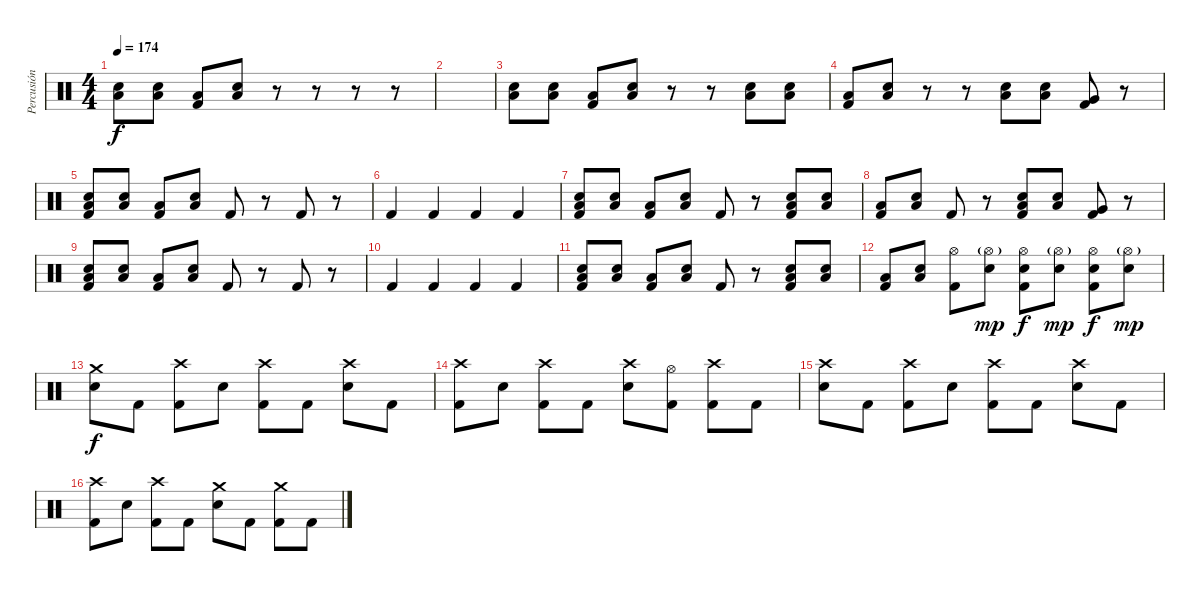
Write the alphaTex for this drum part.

\track ("Percusión" "Percusión") {instrument percussion}
\staff {score}
\articulation defaults
\ts (4 4)
\tempo 174
\clef neutral
\ks c
("Low Tom (hit)" "Electric Snare (hit)").8{dy f} ("Low Tom (hit)" "Electric Snare (hit)").8 ("Low Floor Tom (hit)" "Kick (hit) 2").8 ("Low Floor Tom (hit)" "Electric Snare (hit)").8 r.8 r.8 r.8 r.8 |
|
("Low Tom (hit)" "Electric Snare (hit)").8 ("Low Tom (hit)" "Electric Snare (hit)").8 ("Low Floor Tom (hit)" "Kick (hit) 2").8 ("Low Floor Tom (hit)" "Electric Snare (hit)").8 r.8 r.8 ("Low Tom (hit)" "Electric Snare (hit)").8 ("Low Tom (hit)" "Electric Snare (hit)").8 |
("Low Floor Tom (hit)" "Kick (hit) 2").8 ("Low Floor Tom (hit)" "Electric Snare (hit)").8 r.8 r.8 ("Low Tom (hit)" "Electric Snare (hit)").8 ("Low Tom (hit)" "Electric Snare (hit)").8 ("Very Low Tom (hit)" "Kick (hit) 2").8 r.8 |
("Low Tom (hit)" "Electric Snare (hit)" "Kick (hit) 2").8 ("Low Tom (hit)" "Electric Snare (hit)").8 ("Low Floor Tom (hit)" "Kick (hit) 2").8 ("Low Floor Tom (hit)" "Electric Snare (hit)").8 "Kick (hit) 2".8 r.8 "Kick (hit) 2".8 r.8 |
"Kick (hit) 2".4 "Kick (hit) 2".4 "Kick (hit) 2".4 "Kick (hit) 2".4 |
("Low Tom (hit)" "Electric Snare (hit)" "Kick (hit) 2").8 ("Low Tom (hit)" "Electric Snare (hit)").8 ("Low Floor Tom (hit)" "Kick (hit) 2").8 ("Low Floor Tom (hit)" "Electric Snare (hit)").8 "Kick (hit) 2".8 r.8 ("Low Tom (hit)" "Electric Snare (hit)" "Kick (hit) 2").8 ("Low Tom (hit)" "Electric Snare (hit)").8 |
("Low Floor Tom (hit)" "Kick (hit) 2").8 ("Low Floor Tom (hit)" "Electric Snare (hit)").8 "Kick (hit) 2".8 r.8 ("Low Tom (hit)" "Electric Snare (hit)" "Kick (hit) 2").8 ("Low Tom (hit)" "Electric Snare (hit)").8 ("Very Low Tom (hit)" "Kick (hit) 2").8 r.8 |
("Low Tom (hit)" "Electric Snare (hit)" "Kick (hit) 2").8 ("Low Tom (hit)" "Electric Snare (hit)").8 ("Low Floor Tom (hit)" "Kick (hit) 2").8 ("Low Floor Tom (hit)" "Electric Snare (hit)").8 "Kick (hit) 2".8 r.8 "Kick (hit) 2".8 r.8 |
"Kick (hit) 2".4 "Kick (hit) 2".4 "Kick (hit) 2".4 "Kick (hit) 2".4 |
("Low Tom (hit)" "Electric Snare (hit)" "Kick (hit) 2").8 ("Low Tom (hit)" "Electric Snare (hit)").8 ("Low Floor Tom (hit)" "Kick (hit) 2").8 ("Low Floor Tom (hit)" "Electric Snare (hit)").8 "Kick (hit) 2".8 r.8 ("Low Tom (hit)" "Electric Snare (hit)" "Kick (hit) 2").8 ("Low Tom (hit)" "Electric Snare (hit)").8 |
("Low Floor Tom (hit)" "Kick (hit) 2").8 ("Low Floor Tom (hit)" "Electric Snare (hit)").8 ("Hi-Hat (open)" "Kick (hit) 2").8 ("Hi-Hat (open)"{g} "Electric Snare (hit)").8{dy mp} ("Hi-Hat (open)" "Electric Snare (hit)" "Kick (hit) 2").8{dy f} ("Hi-Hat (open)"{g} "Electric Snare (hit)").8{dy mp} ("Hi-Hat (open)" "Electric Snare (hit)" "Kick (hit) 2").8{dy f} ("Hi-Hat (open)"{g} "Electric Snare (hit)").8{dy mp} |
("Crash medium (hit)" "Electric Snare (hit)").8{dy f} "Kick (hit) 2".8 ("Crash high (hit)" "Kick (hit) 2").8 "Electric Snare (hit)".8 ("Crash high (hit)" "Kick (hit) 2").8 "Kick (hit) 2".8 ("Crash high (hit)" "Electric Snare (hit)").8 "Kick (hit) 2".8 |
("Crash high (hit)" "Kick (hit) 2").8 "Electric Snare (hit)".8 ("Crash high (hit)" "Kick (hit) 2").8 "Kick (hit) 2".8 ("Crash high (hit)" "Electric Snare (hit)").8 ("Hi-Hat (open)" "Kick (hit) 2").8 ("Crash high (hit)" "Kick (hit) 2").8 "Kick (hit) 2".8 |
("Crash high (hit)" "Electric Snare (hit)").8 "Kick (hit) 2".8 ("Crash high (hit)" "Kick (hit) 2").8 "Electric Snare (hit)".8 ("Crash high (hit)" "Kick (hit) 2").8 "Kick (hit) 2".8 ("Crash high (hit)" "Electric Snare (hit)").8 "Kick (hit) 2".8 |
("Crash high (hit)" "Kick (hit) 2").8 "Electric Snare (hit)".8 ("Crash high (hit)" "Kick (hit) 2").8 "Kick (hit) 2".8 ("Crash medium (hit)" "Electric Snare (hit)").8 "Kick (hit) 2".8 ("Crash medium (hit)" "Kick (hit) 2").8 "Kick (hit) 2".8
